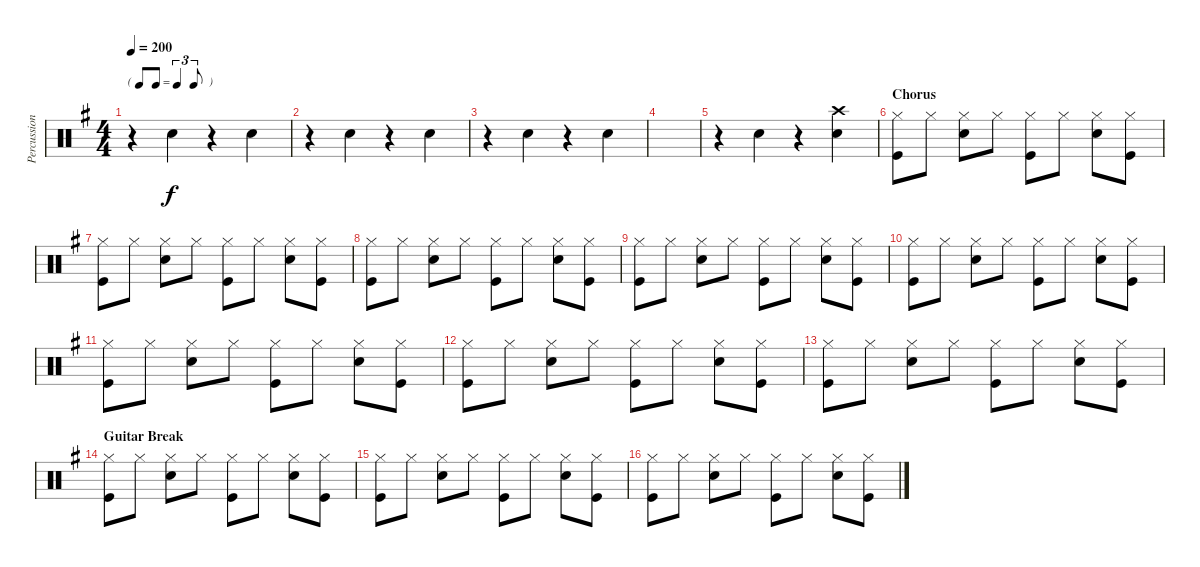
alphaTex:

\track ("Percussion" "Percussion") {instrument percussion}
\staff {score}
\articulation defaults
\ts (4 4)
\tf triplet8th
\tempo 200
\clef neutral
\ks g
r.4{dy f} "Hand Clap (hit)".4 r.4 "Hand Clap (hit)".4 |
r.4 "Hand Clap (hit)".4 r.4 "Hand Clap (hit)".4 |
r.4 "Hand Clap (hit)".4 r.4 "Hand Clap (hit)".4 |
|
r.4 "Hand Clap (hit)".4 r.4 ("Crash high (hit)" "Snare (hit) 2").4 |
\section ("" "Chorus")
("Hi-Hat (closed)" "Kick (hit)").8 "Hi-Hat (closed)".8 ("Hi-Hat (closed)" "Snare (hit) 2").8 "Hi-Hat (closed)".8 ("Hi-Hat (closed)" "Kick (hit)").8 "Hi-Hat (closed)".8 ("Hi-Hat (closed)" "Snare (hit) 2").8 ("Hi-Hat (closed)" "Kick (hit)").8 |
("Hi-Hat (closed)" "Kick (hit)").8 "Hi-Hat (closed)".8 ("Hi-Hat (closed)" "Snare (hit) 2").8 "Hi-Hat (closed)".8 ("Hi-Hat (closed)" "Kick (hit)").8 "Hi-Hat (closed)".8 ("Hi-Hat (closed)" "Snare (hit) 2").8 ("Hi-Hat (closed)" "Kick (hit)").8 |
("Hi-Hat (closed)" "Kick (hit)").8 "Hi-Hat (closed)".8 ("Hi-Hat (closed)" "Snare (hit) 2").8 "Hi-Hat (closed)".8 ("Hi-Hat (closed)" "Kick (hit)").8 "Hi-Hat (closed)".8 ("Hi-Hat (closed)" "Snare (hit) 2").8 ("Hi-Hat (closed)" "Kick (hit)").8 |
("Hi-Hat (closed)" "Kick (hit)").8 "Hi-Hat (closed)".8 ("Hi-Hat (closed)" "Snare (hit) 2").8 "Hi-Hat (closed)".8 ("Hi-Hat (closed)" "Kick (hit)").8 "Hi-Hat (closed)".8 ("Hi-Hat (closed)" "Snare (hit) 2").8 ("Hi-Hat (closed)" "Kick (hit)").8 |
("Hi-Hat (closed)" "Kick (hit)").8 "Hi-Hat (closed)".8 ("Hi-Hat (closed)" "Snare (hit) 2").8 "Hi-Hat (closed)".8 ("Hi-Hat (closed)" "Kick (hit)").8 "Hi-Hat (closed)".8 ("Hi-Hat (closed)" "Snare (hit) 2").8 ("Hi-Hat (closed)" "Kick (hit)").8 |
("Hi-Hat (closed)" "Kick (hit)").8 "Hi-Hat (closed)".8 ("Hi-Hat (closed)" "Snare (hit) 2").8 "Hi-Hat (closed)".8 ("Hi-Hat (closed)" "Kick (hit)").8 "Hi-Hat (closed)".8 ("Hi-Hat (closed)" "Snare (hit) 2").8 ("Hi-Hat (closed)" "Kick (hit)").8 |
("Hi-Hat (closed)" "Kick (hit)").8 "Hi-Hat (closed)".8 ("Hi-Hat (closed)" "Snare (hit) 2").8 "Hi-Hat (closed)".8 ("Hi-Hat (closed)" "Kick (hit)").8 "Hi-Hat (closed)".8 ("Hi-Hat (closed)" "Snare (hit) 2").8 ("Hi-Hat (closed)" "Kick (hit)").8 |
("Hi-Hat (closed)" "Kick (hit)").8 "Hi-Hat (closed)".8 ("Hi-Hat (closed)" "Snare (hit) 2").8 "Hi-Hat (closed)".8 ("Hi-Hat (closed)" "Kick (hit)").8 "Hi-Hat (closed)".8 ("Hi-Hat (closed)" "Snare (hit) 2").8 ("Hi-Hat (closed)" "Kick (hit)").8 |
\section ("" "Guitar Break")
("Hi-Hat (closed)" "Kick (hit)").8 "Hi-Hat (closed)".8 ("Hi-Hat (closed)" "Snare (hit) 2").8 "Hi-Hat (closed)".8 ("Hi-Hat (closed)" "Kick (hit)").8 "Hi-Hat (closed)".8 ("Hi-Hat (closed)" "Snare (hit) 2").8 ("Hi-Hat (closed)" "Kick (hit)").8 |
("Hi-Hat (closed)" "Kick (hit)").8 "Hi-Hat (closed)".8 ("Hi-Hat (closed)" "Snare (hit) 2").8 "Hi-Hat (closed)".8 ("Hi-Hat (closed)" "Kick (hit)").8 "Hi-Hat (closed)".8 ("Hi-Hat (closed)" "Snare (hit) 2").8 ("Hi-Hat (closed)" "Kick (hit)").8 |
("Hi-Hat (closed)" "Kick (hit)").8 "Hi-Hat (closed)".8 ("Hi-Hat (closed)" "Snare (hit) 2").8 "Hi-Hat (closed)".8 ("Hi-Hat (closed)" "Kick (hit)").8 "Hi-Hat (closed)".8 ("Hi-Hat (closed)" "Snare (hit) 2").8 ("Hi-Hat (closed)" "Kick (hit)").8
